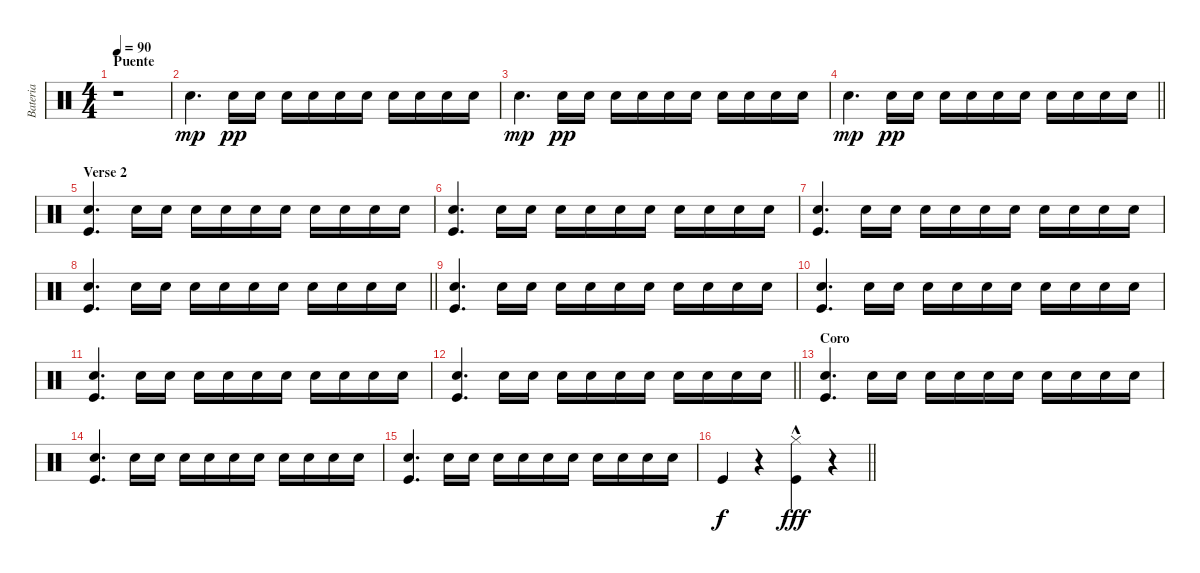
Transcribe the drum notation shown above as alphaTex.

\track ("Bateria" "Bateria") {instrument percussion}
\staff {score}
\articulation defaults
\ts (4 4)
\section ("" "Puente")
\tempo 90
\clef neutral
\ks c
r.1{dy mp} |
"Snare (hit) 2".4{d} "Snare (hit) 2".16{dy pp} "Snare (hit) 2".16 "Snare (hit) 2".16 "Snare (hit) 2".16 "Snare (hit) 2".16 "Snare (hit) 2".16 "Snare (hit) 2".16 "Snare (hit) 2".16 "Snare (hit) 2".16 "Snare (hit) 2".16 |
"Snare (hit) 2".4{d dy mp} "Snare (hit) 2".16{dy pp} "Snare (hit) 2".16 "Snare (hit) 2".16 "Snare (hit) 2".16 "Snare (hit) 2".16 "Snare (hit) 2".16 "Snare (hit) 2".16 "Snare (hit) 2".16 "Snare (hit) 2".16 "Snare (hit) 2".16 |
\barLineRight lightlight "Snare (hit) 2".4{d dy mp} "Snare (hit) 2".16{dy pp} "Snare (hit) 2".16 "Snare (hit) 2".16 "Snare (hit) 2".16 "Snare (hit) 2".16 "Snare (hit) 2".16 "Snare (hit) 2".16 "Snare (hit) 2".16 "Snare (hit) 2".16 "Snare (hit) 2".16
|
\section ("" "Verse 2")
("Snare (hit) 2" "Kick (hit)").4{d} "Snare (hit) 2".16 "Snare (hit) 2".16 "Snare (hit) 2".16 "Snare (hit) 2".16 "Snare (hit) 2".16 "Snare (hit) 2".16 "Snare (hit) 2".16 "Snare (hit) 2".16 "Snare (hit) 2".16 "Snare (hit) 2".16 |
("Snare (hit) 2" "Kick (hit)").4{d} "Snare (hit) 2".16 "Snare (hit) 2".16 "Snare (hit) 2".16 "Snare (hit) 2".16 "Snare (hit) 2".16 "Snare (hit) 2".16 "Snare (hit) 2".16 "Snare (hit) 2".16 "Snare (hit) 2".16 "Snare (hit) 2".16 |
("Snare (hit) 2" "Kick (hit)").4{d} "Snare (hit) 2".16 "Snare (hit) 2".16 "Snare (hit) 2".16 "Snare (hit) 2".16 "Snare (hit) 2".16 "Snare (hit) 2".16 "Snare (hit) 2".16 "Snare (hit) 2".16 "Snare (hit) 2".16 "Snare (hit) 2".16 |
\barLineRight lightlight
("Snare (hit) 2" "Kick (hit)").4{d} "Snare (hit) 2".16 "Snare (hit) 2".16 "Snare (hit) 2".16 "Snare (hit) 2".16 "Snare (hit) 2".16 "Snare (hit) 2".16 "Snare (hit) 2".16 "Snare (hit) 2".16 "Snare (hit) 2".16 "Snare (hit) 2".16 |
("Snare (hit) 2" "Kick (hit)").4{d} "Snare (hit) 2".16 "Snare (hit) 2".16 "Snare (hit) 2".16 "Snare (hit) 2".16 "Snare (hit) 2".16 "Snare (hit) 2".16 "Snare (hit) 2".16 "Snare (hit) 2".16 "Snare (hit) 2".16 "Snare (hit) 2".16 |
("Snare (hit) 2" "Kick (hit)").4{d} "Snare (hit) 2".16 "Snare (hit) 2".16 "Snare (hit) 2".16 "Snare (hit) 2".16 "Snare (hit) 2".16 "Snare (hit) 2".16 "Snare (hit) 2".16 "Snare (hit) 2".16 "Snare (hit) 2".16 "Snare (hit) 2".16 |
("Snare (hit) 2" "Kick (hit)").4{d} "Snare (hit) 2".16 "Snare (hit) 2".16 "Snare (hit) 2".16 "Snare (hit) 2".16 "Snare (hit) 2".16 "Snare (hit) 2".16 "Snare (hit) 2".16 "Snare (hit) 2".16 "Snare (hit) 2".16 "Snare (hit) 2".16 |
\barLineRight lightlight
("Snare (hit) 2" "Kick (hit)").4{d} "Snare (hit) 2".16 "Snare (hit) 2".16 "Snare (hit) 2".16 "Snare (hit) 2".16 "Snare (hit) 2".16 "Snare (hit) 2".16 "Snare (hit) 2".16 "Snare (hit) 2".16 "Snare (hit) 2".16 "Snare (hit) 2".16 |
\section ("" "Coro ")
("Snare (hit) 2" "Kick (hit)").4{d} "Snare (hit) 2".16 "Snare (hit) 2".16 "Snare (hit) 2".16 "Snare (hit) 2".16 "Snare (hit) 2".16 "Snare (hit) 2".16 "Snare (hit) 2".16 "Snare (hit) 2".16 "Snare (hit) 2".16 "Snare (hit) 2".16 |
("Snare (hit) 2" "Kick (hit)").4{d} "Snare (hit) 2".16 "Snare (hit) 2".16 "Snare (hit) 2".16 "Snare (hit) 2".16 "Snare (hit) 2".16 "Snare (hit) 2".16 "Snare (hit) 2".16 "Snare (hit) 2".16 "Snare (hit) 2".16 "Snare (hit) 2".16 |
("Snare (hit) 2" "Kick (hit)").4{d} "Snare (hit) 2".16 "Snare (hit) 2".16 "Snare (hit) 2".16 "Snare (hit) 2".16 "Snare (hit) 2".16 "Snare (hit) 2".16 "Snare (hit) 2".16 "Snare (hit) 2".16 "Snare (hit) 2".16 "Snare (hit) 2".16 |
\barLineRight lightlight "Kick (hit)".4{dy f}
r.4 ("Hi-Hat (closed)"{hac} "Kick (hit)").4{dy fff} r.4
